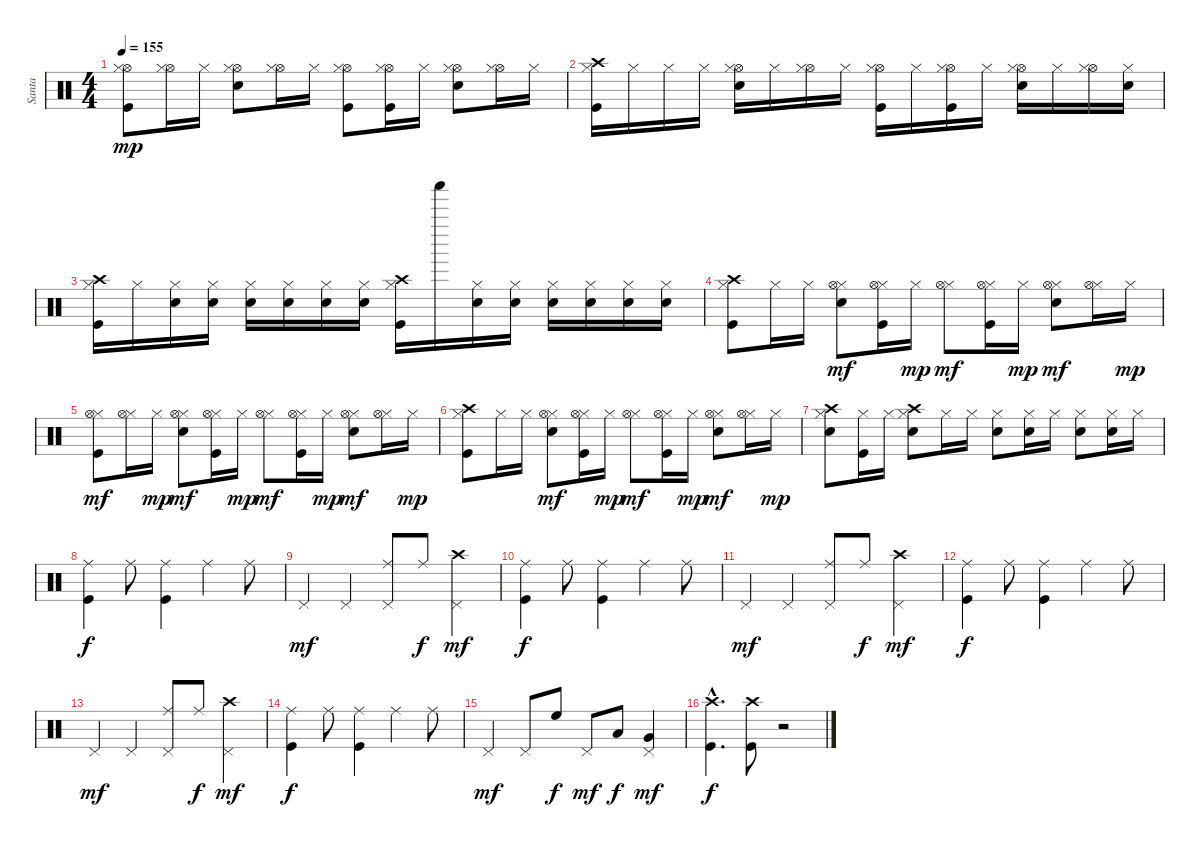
\track ("Santa" "Santa") {instrument percussion}
\staff {score}
\articulation defaults
\ts (4 4)
\tempo 155
\clef neutral
\ks c
("Kick (hit)" "Hi-Hat (open)" "Hi-Hat (closed)").8{dy mp} ("Hi-Hat (open)" "Hi-Hat (closed)").16 "Hi-Hat (closed)".16 ("Snare (hit) 2" "Hi-Hat (open)" "Hi-Hat (closed)").8 ("Hi-Hat (open)" "Hi-Hat (closed)").16 "Hi-Hat (closed)".16 ("Kick (hit)" "Hi-Hat (open)" "Hi-Hat (closed)").8 ("Kick (hit)" "Hi-Hat (open)" "Hi-Hat (closed)").16 "Hi-Hat (closed)".16 ("Snare (hit) 2" "Hi-Hat (open)" "Hi-Hat (closed)").8 ("Hi-Hat (open)" "Hi-Hat (closed)").16 "Hi-Hat (closed)".16 |
("Kick (hit)" "Crash high (hit)" "Hi-Hat (closed)").16 "Hi-Hat (closed)".16 "Hi-Hat (closed)".16 "Hi-Hat (closed)".16 ("Snare (hit) 2" "Hi-Hat (open)" "Hi-Hat (closed)").16 "Hi-Hat (closed)".16 ("Hi-Hat (open)" "Hi-Hat (closed)").16 "Hi-Hat (closed)".16 ("Kick (hit)" "Hi-Hat (open)" "Hi-Hat (closed)").16 "Hi-Hat (closed)".16 ("Kick (hit)" "Hi-Hat (open)" "Hi-Hat (closed)").16 "Hi-Hat (closed)".16 ("Snare (hit) 2" "Hi-Hat (open)" "Hi-Hat (closed)").16 "Hi-Hat (closed)".16 ("Hi-Hat (open)" "Hi-Hat (closed)").16 ("Snare (hit) 2" "Hi-Hat (closed)").16 |
("Kick (hit)" "Crash high (hit)" "Hi-Hat (closed)").16 "Hi-Hat (closed)".16 ("Snare (hit) 2" "Hi-Hat (closed)").16 ("Snare (hit) 2" "Hi-Hat (closed)").16 ("Snare (hit) 2" "Hi-Hat (closed)").16 ("Snare (hit) 2" "Hi-Hat (closed)").16 ("Snare (hit) 2" "Hi-Hat (closed)").16 ("Snare (hit) 2" "Hi-Hat (closed)").16 ("Kick (hit)" "Crash high (hit)" "Hi-Hat (closed)").16 "Shaker (hit)".16 ("Snare (hit) 2" "Hi-Hat (closed)").16 ("Snare (hit) 2" "Hi-Hat (closed)").16 ("Snare (hit) 2" "Hi-Hat (closed)").16 ("Snare (hit) 2" "Hi-Hat (closed)").16 ("Snare (hit) 2" "Hi-Hat (closed)").16 ("Snare (hit) 2" "Hi-Hat (closed)").16 |
("Hi-Hat (closed)" "Kick (hit)" "Crash high (hit)").8 "Hi-Hat (closed)".16 "Hi-Hat (closed)".16 ("Hi-Hat (closed)" "Snare (hit) 2" "Hi-Hat (open)").8{dy mf} ("Hi-Hat (closed)" "Kick (hit)" "Hi-Hat (open)").16 "Hi-Hat (closed)".16{dy mp} ("Hi-Hat (closed)" "Hi-Hat (open)").8{dy mf} ("Hi-Hat (closed)" "Kick (hit)" "Hi-Hat (open)").16 "Hi-Hat (closed)".16{dy mp} ("Hi-Hat (closed)" "Snare (hit) 2" "Hi-Hat (open)").8{dy mf} ("Hi-Hat (closed)" "Hi-Hat (open)").16 "Hi-Hat (closed)".16{dy mp} |
("Hi-Hat (closed)" "Kick (hit)" "Hi-Hat (open)").8{dy mf} ("Hi-Hat (closed)" "Hi-Hat (open)").16 "Hi-Hat (closed)".16{dy mp} ("Hi-Hat (closed)" "Snare (hit) 2" "Hi-Hat (open)").8{dy mf} ("Hi-Hat (closed)" "Kick (hit)" "Hi-Hat (open)").16 "Hi-Hat (closed)".16{dy mp} ("Hi-Hat (closed)" "Hi-Hat (open)").8{dy mf} ("Hi-Hat (closed)" "Kick (hit)" "Hi-Hat (open)").16 "Hi-Hat (closed)".16{dy mp} ("Hi-Hat (closed)" "Snare (hit) 2" "Hi-Hat (open)").8{dy mf} ("Hi-Hat (closed)" "Hi-Hat (open)").16 "Hi-Hat (closed)".16{dy mp} |
("Hi-Hat (closed)" "Kick (hit)" "Crash high (hit)").8 "Hi-Hat (closed)".16 "Hi-Hat (closed)".16 ("Hi-Hat (closed)" "Snare (hit) 2" "Hi-Hat (open)").8{dy mf} ("Hi-Hat (closed)" "Kick (hit)" "Hi-Hat (open)").16 "Hi-Hat (closed)".16{dy mp} ("Hi-Hat (closed)" "Hi-Hat (open)").8{dy mf} ("Hi-Hat (closed)" "Kick (hit)" "Hi-Hat (open)").16 "Hi-Hat (closed)".16{dy mp} ("Hi-Hat (closed)" "Snare (hit) 2" "Hi-Hat (open)").8{dy mf} ("Hi-Hat (closed)" "Hi-Hat (open)").16 "Hi-Hat (closed)".16{dy mp} |
("Hi-Hat (closed)" "Snare (hit) 2" "Crash high (hit)").8 ("Hi-Hat (closed)" "Kick (hit)").16 "Hi-Hat (closed)".16 ("Hi-Hat (closed)" "Snare (hit) 2" "Crash high (hit)").8 "Hi-Hat (closed)".16 "Hi-Hat (closed)".16 ("Hi-Hat (closed)" "Snare (hit) 2").8 ("Hi-Hat (closed)" "Snare (hit) 2").16 "Hi-Hat (closed)".16 ("Hi-Hat (closed)" "Snare (hit) 2").8 ("Hi-Hat (closed)" "Snare (hit) 2").16 "Hi-Hat (closed)".16 |
("Kick (hit)" "Ride (middle)").4{dy f} "Ride (middle)".8 ("Kick (hit)" "Ride (middle)").4 "Ride (middle)".4 "Ride (middle)".8 |
"Pedal Hi-Hat (hit)".4{dy mf} "Pedal Hi-Hat (hit)".4 ("Ride (middle)" "Pedal Hi-Hat (hit)").8 "Ride (middle)".8{dy f} ("Crash high (hit)" "Pedal Hi-Hat (hit)").4{dy mf} |
("Kick (hit)" "Ride (middle)").4{dy f} "Ride (middle)".8 ("Kick (hit)" "Ride (middle)").4 "Ride (middle)".4 "Ride (middle)".8 |
"Pedal Hi-Hat (hit)".4{dy mf} "Pedal Hi-Hat (hit)".4 ("Ride (middle)" "Pedal Hi-Hat (hit)").8 "Ride (middle)".8{dy f} ("Crash high (hit)" "Pedal Hi-Hat (hit)").4{dy mf} |
("Kick (hit)" "Ride (middle)").4{dy f} "Ride (middle)".8 ("Kick (hit)" "Ride (middle)").4 "Ride (middle)".4 "Ride (middle)".8 |
"Pedal Hi-Hat (hit)".4{dy mf} "Pedal Hi-Hat (hit)".4 ("Ride (middle)" "Pedal Hi-Hat (hit)").8 "Ride (middle)".8{dy f} ("Crash high (hit)" "Pedal Hi-Hat (hit)").4{dy mf} |
("Kick (hit)" "Ride (middle)").4{dy f} "Ride (middle)".8 ("Kick (hit)" "Ride (middle)").4 "Ride (middle)".4 "Ride (middle)".8 |
"Pedal Hi-Hat (hit)".4{dy mf} "Pedal Hi-Hat (hit)".8 "High Floor Tom (hit)".8{dy f} "Pedal Hi-Hat (hit)".8{dy mf} "Low Tom (hit)".8{dy f} ("Very Low Tom (hit)" "Pedal Hi-Hat (hit)").4{dy mf} |
("Kick (hit)"{hac} "Crash high (hit)"{hac}).4{d dy f} ("Kick (hit)" "Crash high (hit)").8 r.2
